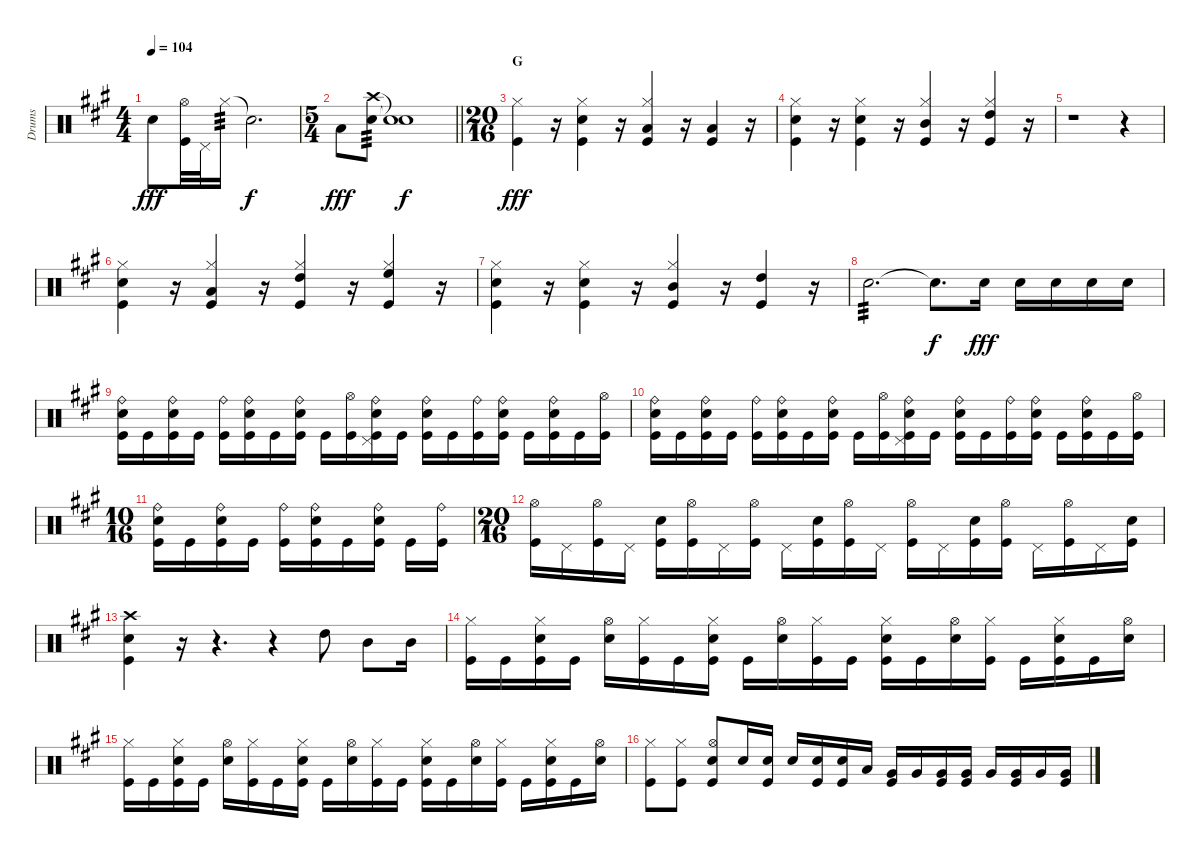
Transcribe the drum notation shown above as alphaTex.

\track ("Drums" "Drums") {instrument percussion}
\staff {score}
\articulation defaults
\ts (4 4)
\tempo 104
\clef neutral
\ks a "Snare (hit) 2".8{dy fff}
("Hi-Hat (open)" "Kick (hit)").32 "Pedal Hi-Hat (hit)".32 "Hi-Hat (closed)".16{tp 3} "Snare (hit)"{t}.2{d dy f} |
\ts (5 4)
\barLineRight lightlight "Low Floor Tom (hit)".8{dy fff}
("Crash high (hit)" "Snare (hit) 2").8{tp 3} ("Snare (hit)"{t} "Snare (hit)"{t}).1{dy f} |
\ts (20 16)
\section ("" "G")
("Hi-Hat (closed)" "Kick (hit)").4{dy fff} r.16 ("Hi-Hat (closed)" "Snare (hit) 2" "Kick (hit)").4 r.16 ("Hi-Hat (closed)" "Low Tom (hit)" "Kick (hit)").4 r.16 ("Low Tom (hit)" "Kick (hit)").4 r.16 |
("Hi-Hat (closed)" "Snare (hit) 2" "Kick (hit)").4 r.16 ("Hi-Hat (closed)" "Snare (hit) 2" "Kick (hit)").4 r.16 ("Hi-Hat (closed)" "Mid Tom (hit)" "Kick (hit)").4 r.16 ("Hi-Hat (closed)" "High Tom (hit)" "Kick (hit)").4 r.16 |
r.1 r.4 |
("Hi-Hat (closed)" "Snare (hit) 2" "Kick (hit)").4 r.16 ("Hi-Hat (closed)" "Low Tom (hit)" "Kick (hit)").4 r.16 ("Hi-Hat (closed)" "High Tom (hit)" "Kick (hit)").4 r.16 ("Hi-Hat (closed)" "High Floor Tom (hit)" "Kick (hit)").4 r.16 |
("Hi-Hat (closed)" "Snare (hit) 2" "Kick (hit)").4 r.16 ("Hi-Hat (closed)" "Snare (hit) 2" "Kick (hit)").4 r.16 ("Hi-Hat (closed)" "Mid Tom (hit)" "Kick (hit)").4 r.16 ("High Tom (hit)" "Kick (hit)").4 r.16 |
"Snare (hit) 2".2{d tp 3} "Snare (hit)"{t}.8{d dy f} "Snare (hit) 2".16{dy fff} "Snare (hit) 2".16 "Snare (hit) 2".16 "Snare (hit) 2".16 "Snare (hit) 2".16 |
("Ride (bell)" "Snare (hit) 2" "Kick (hit)").16 "Kick (hit)".16 ("Ride (bell)" "Snare (hit) 2" "Kick (hit)").16 "Kick (hit)".16 ("Ride (bell)" "Kick (hit)").16 ("Ride (bell)" "Snare (hit) 2" "Kick (hit)").16 "Kick (hit)".16 ("Ride (bell)" "Snare (hit) 2" "Kick (hit)").16 "Kick (hit)".16 ("Hi-Hat (open)" "Kick (hit)").16 ("Ride (bell)" "Pedal Hi-Hat (hit)" "Snare (hit) 2" "Kick (hit)").16 "Kick (hit)".16 ("Ride (bell)" "Snare (hit) 2" "Kick (hit)").16 "Kick (hit)".16 ("Ride (bell)" "Kick (hit)").16 ("Ride (bell)" "Snare (hit) 2" "Kick (hit)").16 "Kick (hit)".16 ("Ride (bell)" "Snare (hit) 2" "Kick (hit)").16 "Kick (hit)".16 ("Hi-Hat (open)" "Kick (hit)").16 |
("Ride (bell)" "Snare (hit) 2" "Kick (hit)").16 "Kick (hit)".16 ("Ride (bell)" "Snare (hit) 2" "Kick (hit)").16 "Kick (hit)".16 ("Ride (bell)" "Kick (hit)").16 ("Ride (bell)" "Snare (hit) 2" "Kick (hit)").16 "Kick (hit)".16 ("Ride (bell)" "Snare (hit) 2" "Kick (hit)").16 "Kick (hit)".16 ("Hi-Hat (open)" "Kick (hit)").16 ("Ride (bell)" "Pedal Hi-Hat (hit)" "Snare (hit) 2" "Kick (hit)").16 "Kick (hit)".16 ("Ride (bell)" "Snare (hit) 2" "Kick (hit)").16 "Kick (hit)".16 ("Ride (bell)" "Kick (hit)").16 ("Ride (bell)" "Snare (hit) 2" "Kick (hit)").16 "Kick (hit)".16 ("Ride (bell)" "Snare (hit) 2" "Kick (hit)").16 "Kick (hit)".16 ("Hi-Hat (open)" "Kick (hit)").16 |
\ts (10 16)
("Ride (bell)" "Snare (hit) 2" "Kick (hit)").16 "Kick (hit)".16 ("Ride (bell)" "Snare (hit) 2" "Kick (hit)").16 "Kick (hit)".16 ("Ride (bell)" "Kick (hit)").16 ("Ride (bell)" "Snare (hit) 2" "Kick (hit)").16 "Kick (hit)".16 ("Ride (bell)" "Snare (hit) 2" "Kick (hit)").16 "Kick (hit)".16 ("Ride (bell)" "Kick (hit)").16 |
\ts (20 16)
("Hi-Hat (open)" "Kick (hit)").16 "Pedal Hi-Hat (hit)".16 ("Hi-Hat (open)" "Kick (hit)").16 "Pedal Hi-Hat (hit)".16 ("Snare (hit) 2" "Kick (hit)").16 ("Hi-Hat (open)" "Kick (hit)").16 "Pedal Hi-Hat (hit)".16 ("Hi-Hat (open)" "Kick (hit)").16 "Pedal Hi-Hat (hit)".16 ("Snare (hit) 2" "Kick (hit)").16 ("Hi-Hat (open)" "Kick (hit)").16 "Pedal Hi-Hat (hit)".16 ("Hi-Hat (open)" "Kick (hit)").16 "Pedal Hi-Hat (hit)".16 ("Snare (hit) 2" "Kick (hit)").16 ("Hi-Hat (open)" "Kick (hit)").16 "Pedal Hi-Hat (hit)".16 ("Hi-Hat (open)" "Kick (hit)").16 "Pedal Hi-Hat (hit)".16 ("Snare (hit) 2" "Kick (hit)").16 |
("Crash high (hit)" "Snare (hit) 2" "Kick (hit)").4 r.16 r.4{d} r.4 "High Tom (hit)".8 "Mid Tom (hit)".8 "Mid Tom (hit)".16 |
("Hi-Hat (closed)" "Kick (hit)").16 "Kick (hit)".16 ("Hi-Hat (closed)" "Snare (hit) 2" "Kick (hit)").16 "Kick (hit)".16 ("Hi-Hat (open)" "Snare (hit) 2").16 ("Hi-Hat (closed)" "Kick (hit)").16 "Kick (hit)".16 ("Hi-Hat (closed)" "Snare (hit) 2" "Kick (hit)").16 "Kick (hit)".16 ("Hi-Hat (open)" "Snare (hit) 2").16 ("Hi-Hat (closed)" "Kick (hit)").16 "Kick (hit)".16 ("Hi-Hat (closed)" "Snare (hit) 2" "Kick (hit)").16 "Kick (hit)".16 ("Hi-Hat (open)" "Snare (hit) 2").16 ("Hi-Hat (closed)" "Kick (hit)").16 "Kick (hit)".16 ("Hi-Hat (closed)" "Snare (hit) 2" "Kick (hit)").16 "Kick (hit)".16 ("Hi-Hat (open)" "Snare (hit) 2").16 |
("Hi-Hat (closed)" "Kick (hit)").16 "Kick (hit)".16 ("Hi-Hat (closed)" "Snare (hit) 2" "Kick (hit)").16 "Kick (hit)".16 ("Hi-Hat (open)" "Snare (hit) 2").16 ("Hi-Hat (closed)" "Kick (hit)").16 "Kick (hit)".16 ("Hi-Hat (closed)" "Snare (hit) 2" "Kick (hit)").16 "Kick (hit)".16 ("Hi-Hat (open)" "Snare (hit) 2").16 ("Hi-Hat (closed)" "Kick (hit)").16 "Kick (hit)".16 ("Hi-Hat (closed)" "Snare (hit) 2" "Kick (hit)").16 "Kick (hit)".16 ("Hi-Hat (open)" "Snare (hit) 2").16 ("Hi-Hat (closed)" "Kick (hit)").16 "Kick (hit)".16 ("Hi-Hat (closed)" "Snare (hit) 2" "Kick (hit)").16 "Kick (hit)".16 ("Hi-Hat (open)" "Snare (hit) 2").16 |
("Hi-Hat (closed)" "Kick (hit)").8 ("Hi-Hat (closed)" "Kick (hit)").8 ("Hi-Hat (open)" "Snare (hit) 2" "Kick (hit)").8 "Snare (hit) 2".16 ("Snare (hit) 2" "Kick (hit)").16 "Snare (hit) 2".16 ("Snare (hit) 2" "Kick (hit)").16 ("Snare (hit) 2" "Kick (hit)").16 "Low Tom (hit)".16 ("Very Low Tom (hit)" "Kick (hit)").16 "Very Low Tom (hit)".16 ("Very Low Tom (hit)" "Kick (hit)").16 ("Very Low Tom (hit)" "Kick (hit)").16 "Very Low Tom (hit)".16 ("Very Low Tom (hit)" "Kick (hit)").16 "Very Low Tom (hit)".16 ("Very Low Tom (hit)" "Kick (hit)").16
